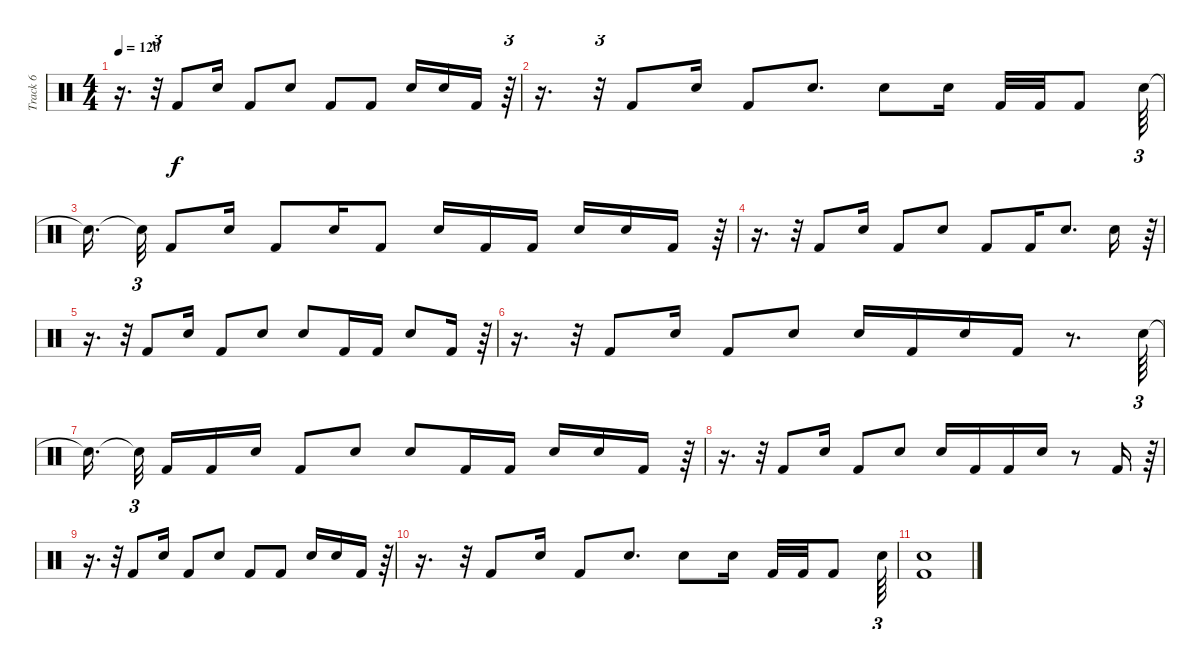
\track ("Track 6" "Track 6") {instrument percussion}
\staff {score}
\articulation defaults
\ts (4 4)
\tempo 120
\clef neutral
\ks c
r.16{d dy f} r.32{tu (3 2)} "Kick (hit) 2".8 "Electric Snare (hit)".16 "Kick (hit) 2".8 "Electric Snare (hit)".8 "Kick (hit) 2".8 "Kick (hit) 2".8 "Electric Snare (hit)".16 "Electric Snare (hit)".16 "Kick (hit) 2".16 r.64{tu (3 2)} |
r.16{d} r.32{tu (3 2)} "Kick (hit) 2".8 "Electric Snare (hit)".16 "Kick (hit) 2".8 "Electric Snare (hit)".8{d} "Electric Snare (hit)".8 "Electric Snare (hit)".16 "Kick (hit) 2".32 "Kick (hit) 2".32 "Kick (hit) 2".8 "Electric Snare (hit)".64{tu (3 2)} |
"Snare (hit)"{t}.16{d beam splitsecondary} "Snare (hit)"{t}.32{tu (3 2)} "Kick (hit) 2".8 "Electric Snare (hit)".16 "Kick (hit) 2".8 "Electric Snare (hit)".16 "Kick (hit) 2".8 "Electric Snare (hit)".16 "Kick (hit) 2".16 "Kick (hit) 2".16 "Electric Snare (hit)".16 "Electric Snare (hit)".16 "Kick (hit) 2".16 r.64{tu (3 2)} |
r.16{d} r.32{tu (3 2)} "Kick (hit) 2".8 "Electric Snare (hit)".16 "Kick (hit) 2".8 "Electric Snare (hit)".8 "Kick (hit) 2".8 "Kick (hit) 2".16 "Electric Snare (hit)".8{d} "Electric Snare (hit)".16 r.64{tu (3 2)} |
r.16{d} r.32{tu (3 2)} "Kick (hit) 2".8 "Electric Snare (hit)".16 "Kick (hit) 2".8 "Electric Snare (hit)".8 "Electric Snare (hit)".8 "Kick (hit) 2".16 "Kick (hit) 2".16 "Electric Snare (hit)".8 "Kick (hit) 2".16 r.64{tu (3 2)} |
r.16{d} r.32{tu (3 2)} "Kick (hit) 2".8 "Electric Snare (hit)".16 "Kick (hit) 2".8 "Electric Snare (hit)".8 "Electric Snare (hit)".16 "Kick (hit) 2".16 "Electric Snare (hit)".16 "Kick (hit) 2".16 r.8{d} "Electric Snare (hit)".64{tu (3 2)} |
"Snare (hit)"{t}.16{d beam splitsecondary} "Snare (hit)"{t}.32{tu (3 2) beam splitsecondary} "Kick (hit) 2".16 "Kick (hit) 2".16 "Electric Snare (hit)".16 "Kick (hit) 2".8 "Electric Snare (hit)".8 "Electric Snare (hit)".8 "Kick (hit) 2".16 "Kick (hit) 2".16 "Electric Snare (hit)".16 "Electric Snare (hit)".16 "Kick (hit) 2".16 r.64{tu (3 2)} |
r.16{d} r.32{tu (3 2)} "Kick (hit) 2".8 "Electric Snare (hit)".16 "Kick (hit) 2".8 "Electric Snare (hit)".8 "Electric Snare (hit)".16 "Kick (hit) 2".16 "Kick (hit) 2".16 "Electric Snare (hit)".16 r.8 "Kick (hit) 2".16 r.64{tu (3 2)} |
r.16{d} r.32{tu (3 2)} "Kick (hit) 2".8 "Electric Snare (hit)".16 "Kick (hit) 2".8 "Electric Snare (hit)".8 "Kick (hit) 2".8 "Kick (hit) 2".8 "Electric Snare (hit)".16 "Electric Snare (hit)".16 "Kick (hit) 2".16 r.64{tu (3 2)} |
r.16{d} r.32{tu (3 2)} "Kick (hit) 2".8 "Electric Snare (hit)".16 "Kick (hit) 2".8 "Electric Snare (hit)".8{d} "Electric Snare (hit)".8 "Electric Snare (hit)".16 "Kick (hit) 2".32 "Kick (hit) 2".32 "Kick (hit) 2".8 "Electric Snare (hit)".64{tu (3 2)} |
("Electric Snare (hit)" "Kick (hit) 2").1
